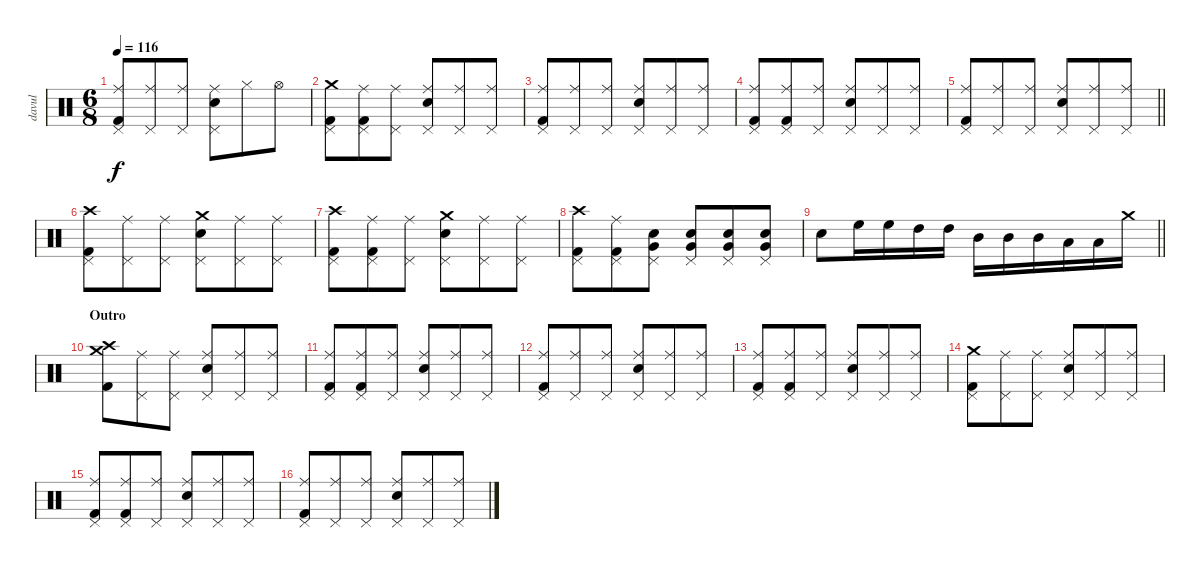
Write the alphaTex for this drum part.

\track ("davul" "davul") {instrument percussion}
\staff {score}
\articulation defaults
\ts (6 8)
\tempo 116
\clef neutral
\ks c
("Ride (middle)" "Kick (hit) 2" "Pedal Hi-Hat (hit)").8{dy f} ("Ride (middle)" "Pedal Hi-Hat (hit)").8 ("Ride (middle)" "Pedal Hi-Hat (hit)").8 ("Ride (middle)" "Electric Snare (hit)" "Pedal Hi-Hat (hit)").8 "Hi-Hat (closed)".8 "Hi-Hat (open)".8 |
("Crash medium (hit)" "Kick (hit) 2" "Pedal Hi-Hat (hit)").8 ("Ride (middle)" "Kick (hit) 2" "Pedal Hi-Hat (hit)").8 ("Ride (middle)" "Pedal Hi-Hat (hit)").8 ("Ride (middle)" "Electric Snare (hit)" "Pedal Hi-Hat (hit)").8 ("Ride (middle)" "Pedal Hi-Hat (hit)").8 ("Ride (middle)" "Pedal Hi-Hat (hit)").8 |
("Ride (middle)" "Kick (hit) 2" "Pedal Hi-Hat (hit)").8 ("Ride (middle)" "Pedal Hi-Hat (hit)").8 ("Ride (middle)" "Pedal Hi-Hat (hit)").8 ("Ride (middle)" "Electric Snare (hit)" "Pedal Hi-Hat (hit)").8 ("Ride (middle)" "Pedal Hi-Hat (hit)").8 ("Ride (middle)" "Pedal Hi-Hat (hit)").8 |
("Ride (middle)" "Kick (hit) 2" "Pedal Hi-Hat (hit)").8 ("Ride (middle)" "Kick (hit) 2" "Pedal Hi-Hat (hit)").8 ("Ride (middle)" "Pedal Hi-Hat (hit)").8 ("Ride (middle)" "Electric Snare (hit)" "Pedal Hi-Hat (hit)").8 ("Ride (middle)" "Pedal Hi-Hat (hit)").8 ("Ride (middle)" "Pedal Hi-Hat (hit)").8 |
\barLineRight lightlight
("Ride (middle)" "Kick (hit) 2" "Pedal Hi-Hat (hit)").8 ("Ride (middle)" "Pedal Hi-Hat (hit)").8 ("Ride (middle)" "Pedal Hi-Hat (hit)").8 ("Ride (middle)" "Electric Snare (hit)" "Pedal Hi-Hat (hit)").8 ("Ride (middle)" "Pedal Hi-Hat (hit)").8 ("Ride (middle)" "Pedal Hi-Hat (hit)").8 |
("Crash high (hit)" "Kick (hit) 2" "Pedal Hi-Hat (hit)").8 ("Ride (middle)" "Pedal Hi-Hat (hit)").8 ("Ride (middle)" "Pedal Hi-Hat (hit)").8 ("Crash medium (hit)" "Electric Snare (hit)" "Pedal Hi-Hat (hit)").8 ("Ride (middle)" "Pedal Hi-Hat (hit)").8 ("Ride (middle)" "Pedal Hi-Hat (hit)").8 |
("Crash high (hit)" "Kick (hit) 2" "Pedal Hi-Hat (hit)").8 ("Ride (middle)" "Kick (hit) 2" "Pedal Hi-Hat (hit)").8 ("Ride (middle)" "Pedal Hi-Hat (hit)").8 ("Crash medium (hit)" "Electric Snare (hit)" "Pedal Hi-Hat (hit)").8 ("Ride (middle)" "Pedal Hi-Hat (hit)").8 ("Ride (middle)" "Pedal Hi-Hat (hit)").8 |
("Crash high (hit)" "Kick (hit) 2" "Pedal Hi-Hat (hit)").8 ("Ride (middle)" "Kick (hit) 2" "Pedal Hi-Hat (hit)").8 ("Very Low Tom (hit)" "Electric Snare (hit)" "Pedal Hi-Hat (hit)").8 ("Very Low Tom (hit)" "Electric Snare (hit)" "Pedal Hi-Hat (hit)").8 ("Very Low Tom (hit)" "Electric Snare (hit)" "Pedal Hi-Hat (hit)").8 ("Very Low Tom (hit)" "Electric Snare (hit)" "Pedal Hi-Hat (hit)").8 |
\barLineRight lightlight "Snare (hit) 2".8 "High Floor Tom (hit)".16 "High Floor Tom (hit)".16 "High Tom (hit)".16 "High Tom (hit)".16 "Mid Tom (hit)".16 "Mid Tom (hit)".16 "Mid Tom (hit)".16 "Low Tom (hit)".16 "Low Tom (hit)".16 "Crash medium (hit)".16
|
\section ("" "Outro")
("Crash high (hit)" "Crash medium (hit)" "Kick (hit) 2").8 ("Ride (middle)" "Pedal Hi-Hat (hit)").8 ("Ride (middle)" "Pedal Hi-Hat (hit)").8 ("Ride (middle)" "Electric Snare (hit)" "Pedal Hi-Hat (hit)").8 ("Ride (middle)" "Pedal Hi-Hat (hit)").8 ("Ride (middle)" "Pedal Hi-Hat (hit)").8 |
("Ride (middle)" "Kick (hit) 2" "Pedal Hi-Hat (hit)").8 ("Ride (middle)" "Kick (hit) 2" "Pedal Hi-Hat (hit)").8 ("Ride (middle)" "Pedal Hi-Hat (hit)").8 ("Ride (middle)" "Electric Snare (hit)" "Pedal Hi-Hat (hit)").8 ("Ride (middle)" "Pedal Hi-Hat (hit)").8 ("Ride (middle)" "Pedal Hi-Hat (hit)").8 |
("Ride (middle)" "Kick (hit) 2" "Pedal Hi-Hat (hit)").8 ("Ride (middle)" "Pedal Hi-Hat (hit)").8 ("Ride (middle)" "Pedal Hi-Hat (hit)").8 ("Ride (middle)" "Electric Snare (hit)" "Pedal Hi-Hat (hit)").8 ("Ride (middle)" "Pedal Hi-Hat (hit)").8 ("Ride (middle)" "Pedal Hi-Hat (hit)").8 |
("Ride (middle)" "Kick (hit) 2" "Pedal Hi-Hat (hit)").8 ("Ride (middle)" "Kick (hit) 2" "Pedal Hi-Hat (hit)").8 ("Ride (middle)" "Pedal Hi-Hat (hit)").8 ("Ride (middle)" "Electric Snare (hit)" "Pedal Hi-Hat (hit)").8 ("Ride (middle)" "Pedal Hi-Hat (hit)").8 ("Ride (middle)" "Pedal Hi-Hat (hit)").8 |
("Crash medium (hit)" "Kick (hit) 2" "Pedal Hi-Hat (hit)").8 ("Ride (middle)" "Pedal Hi-Hat (hit)").8 ("Ride (middle)" "Pedal Hi-Hat (hit)").8 ("Ride (middle)" "Electric Snare (hit)" "Pedal Hi-Hat (hit)").8 ("Ride (middle)" "Pedal Hi-Hat (hit)").8 ("Ride (middle)" "Pedal Hi-Hat (hit)").8 |
("Ride (middle)" "Kick (hit) 2" "Pedal Hi-Hat (hit)").8 ("Ride (middle)" "Kick (hit) 2" "Pedal Hi-Hat (hit)").8 ("Ride (middle)" "Pedal Hi-Hat (hit)").8 ("Ride (middle)" "Electric Snare (hit)" "Pedal Hi-Hat (hit)").8 ("Ride (middle)" "Pedal Hi-Hat (hit)").8 ("Ride (middle)" "Pedal Hi-Hat (hit)").8 |
("Ride (middle)" "Kick (hit) 2" "Pedal Hi-Hat (hit)").8 ("Ride (middle)" "Pedal Hi-Hat (hit)").8 ("Ride (middle)" "Pedal Hi-Hat (hit)").8 ("Ride (middle)" "Electric Snare (hit)" "Pedal Hi-Hat (hit)").8 ("Ride (middle)" "Pedal Hi-Hat (hit)").8 ("Ride (middle)" "Pedal Hi-Hat (hit)").8
